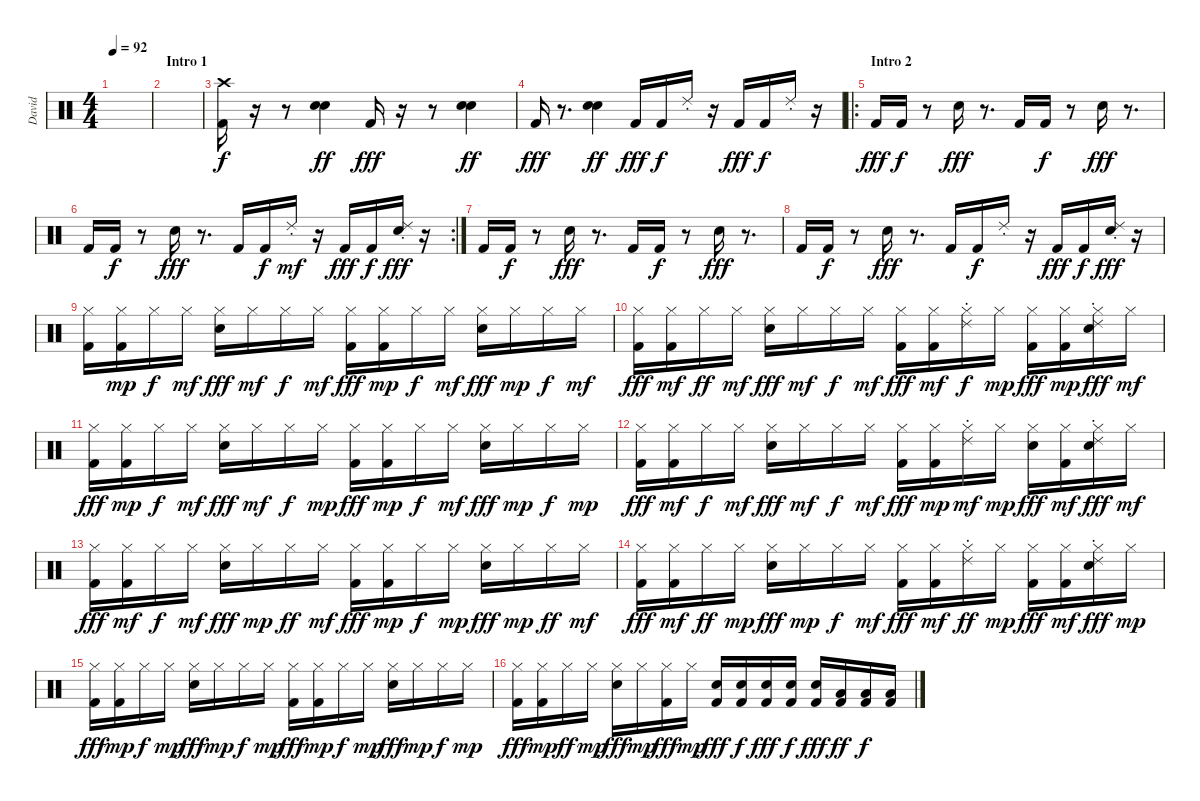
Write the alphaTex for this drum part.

\track ("David" "David") {instrument percussion}
\staff {score}
\articulation defaults
\ts (4 4)
\tempo 92
\clef neutral
\ks c
|
\section ("" "Intro 1")
|
("Crash high (hit)" "Kick (hit) 2").16 r.16 r.8 ("Electric Snare (hit)" "Electric Snare (hit)").4{dy ff} "Kick (hit) 2".16{dy fff} r.16 r.8 ("Electric Snare (hit)" "Electric Snare (hit)").4{dy ff} |
"Kick (hit) 2".16{dy fff} r.8{d} ("Electric Snare (hit)" "Electric Snare (hit)").4{dy ff} "Kick (hit) 2".16{dy fff} "Kick (hit) 2".16{dy f} "Ride (choke) 2".16 r.16 "Kick (hit) 2".16{dy fff} "Kick (hit) 2".16{dy f} "Ride (choke) 2".16 r.16 |
\ro
\section ("" "Intro 2")
"Kick (hit) 2".16{dy fff} "Kick (hit) 2".16{dy f} r.8 "Electric Snare (hit)".16{dy fff} r.8{d} "Kick (hit) 2".16 "Kick (hit) 2".16{dy f} r.8 "Electric Snare (hit)".16{dy fff} r.8{d} |
\rc 2 "Kick (hit) 2".16 "Kick (hit) 2".16{dy f}
r.8 "Electric Snare (hit)".16{dy fff} r.8{d} "Kick (hit) 2".16 "Kick (hit) 2".16{dy f} "Ride (choke) 2".16{dy mf} r.16 "Kick (hit) 2".16{dy fff} "Kick (hit) 2".16{dy f} ("Ride (choke) 2" "Electric Snare (hit)").16{dy fff} r.16 |
"Kick (hit) 2".16 "Kick (hit) 2".16{dy f} r.8 "Electric Snare (hit)".16{dy fff} r.8{d} "Kick (hit) 2".16 "Kick (hit) 2".16{dy f} r.8 "Electric Snare (hit)".16{dy fff} r.8{d} |
"Kick (hit) 2".16 "Kick (hit) 2".16{dy f} r.8 "Electric Snare (hit)".16{dy fff} r.8{d} "Kick (hit) 2".16 "Kick (hit) 2".16{dy f} "Ride (choke) 2".16 r.16 "Kick (hit) 2".16{dy fff} "Kick (hit) 2".16{dy f} ("Ride (choke) 2" "Electric Snare (hit)").16{dy fff} r.16 |
("Hi-Hat (closed)" "Kick (hit) 2").16 ("Hi-Hat (closed)" "Kick (hit) 2").16{dy mp} "Hi-Hat (closed)".16{dy f} "Hi-Hat (closed)".16{dy mf} ("Hi-Hat (closed)" "Electric Snare (hit)").16{dy fff} "Hi-Hat (closed)".16{dy mf} "Hi-Hat (closed)".16{dy f} "Hi-Hat (closed)".16{dy mf} ("Hi-Hat (closed)" "Kick (hit) 2").16{dy fff} ("Hi-Hat (closed)" "Kick (hit) 2").16{dy mp} "Hi-Hat (closed)".16{dy f} "Hi-Hat (closed)".16{dy mf} ("Hi-Hat (closed)" "Electric Snare (hit)").16{dy fff} "Hi-Hat (closed)".16{dy mp} "Hi-Hat (closed)".16{dy f} "Hi-Hat (closed)".16{dy mf} |
("Hi-Hat (closed)" "Kick (hit) 2").16{dy fff} ("Hi-Hat (closed)" "Kick (hit) 2").16{dy mf} "Hi-Hat (closed)".16{dy ff} "Hi-Hat (closed)".16{dy mf} ("Hi-Hat (closed)" "Electric Snare (hit)").16{dy fff} "Hi-Hat (closed)".16{dy mf} "Hi-Hat (closed)".16{dy f} "Hi-Hat (closed)".16{dy mf} ("Hi-Hat (closed)" "Kick (hit) 2").16{dy fff} ("Hi-Hat (closed)" "Kick (hit) 2").16{dy mf} ("Ride (choke) 2" "Hi-Hat (closed)").16{dy f} "Hi-Hat (closed)".16{dy mp} ("Hi-Hat (closed)" "Kick (hit) 2").16{dy fff} ("Hi-Hat (closed)" "Kick (hit) 2").16{dy mp} ("Ride (choke) 2" "Hi-Hat (closed)" "Electric Snare (hit)").16{dy fff} "Hi-Hat (closed)".16{dy mf} |
("Hi-Hat (closed)" "Kick (hit) 2").16{dy fff} ("Hi-Hat (closed)" "Kick (hit) 2").16{dy mp} "Hi-Hat (closed)".16{dy f} "Hi-Hat (closed)".16{dy mf} ("Hi-Hat (closed)" "Electric Snare (hit)").16{dy fff} "Hi-Hat (closed)".16{dy mf} "Hi-Hat (closed)".16{dy f} "Hi-Hat (closed)".16{dy mp} ("Hi-Hat (closed)" "Kick (hit) 2").16{dy fff} ("Hi-Hat (closed)" "Kick (hit) 2").16{dy mp} "Hi-Hat (closed)".16{dy f} "Hi-Hat (closed)".16{dy mf} ("Hi-Hat (closed)" "Electric Snare (hit)").16{dy fff} "Hi-Hat (closed)".16{dy mp} "Hi-Hat (closed)".16{dy f} "Hi-Hat (closed)".16{dy mp} |
("Hi-Hat (closed)" "Kick (hit) 2").16{dy fff} ("Hi-Hat (closed)" "Kick (hit) 2").16{dy mf} "Hi-Hat (closed)".16{dy f} "Hi-Hat (closed)".16{dy mf} ("Hi-Hat (closed)" "Electric Snare (hit)").16{dy fff} "Hi-Hat (closed)".16{dy mf} "Hi-Hat (closed)".16{dy f} "Hi-Hat (closed)".16{dy mf} ("Hi-Hat (closed)" "Kick (hit) 2").16{dy fff} ("Hi-Hat (closed)" "Kick (hit) 2").16{dy mp} ("Ride (choke) 2" "Hi-Hat (closed)").16{dy mf} "Hi-Hat (closed)".16{dy mp} ("Hi-Hat (closed)" "Electric Snare (hit)").16{dy fff} ("Hi-Hat (closed)" "Kick (hit) 2").16{dy mf} ("Ride (choke) 2" "Hi-Hat (closed)" "Electric Snare (hit)").16{dy fff} "Hi-Hat (closed)".16{dy mf} |
("Hi-Hat (closed)" "Kick (hit) 2").16{dy fff} ("Hi-Hat (closed)" "Kick (hit) 2").16{dy mf} "Hi-Hat (closed)".16{dy f} "Hi-Hat (closed)".16{dy mf} ("Hi-Hat (closed)" "Electric Snare (hit)").16{dy fff} "Hi-Hat (closed)".16{dy mp} "Hi-Hat (closed)".16{dy ff} "Hi-Hat (closed)".16{dy mf} ("Hi-Hat (closed)" "Kick (hit) 2").16{dy fff} ("Hi-Hat (closed)" "Kick (hit) 2").16{dy mp} "Hi-Hat (closed)".16{dy f} "Hi-Hat (closed)".16{dy mp} ("Hi-Hat (closed)" "Electric Snare (hit)").16{dy fff} "Hi-Hat (closed)".16{dy mp} "Hi-Hat (closed)".16{dy ff} "Hi-Hat (closed)".16{dy mf} |
("Hi-Hat (closed)" "Kick (hit) 2").16{dy fff} ("Hi-Hat (closed)" "Kick (hit) 2").16{dy mf} "Hi-Hat (closed)".16{dy ff} "Hi-Hat (closed)".16{dy mp} ("Hi-Hat (closed)" "Electric Snare (hit)").16{dy fff} "Hi-Hat (closed)".16{dy mp} "Hi-Hat (closed)".16{dy f} "Hi-Hat (closed)".16{dy mf} ("Hi-Hat (closed)" "Kick (hit) 2").16{dy fff} ("Hi-Hat (closed)" "Kick (hit) 2").16{dy mf} ("Ride (choke) 2" "Hi-Hat (closed)").16{dy ff} "Hi-Hat (closed)".16{dy mp} ("Hi-Hat (closed)" "Kick (hit) 2").16{dy fff} ("Hi-Hat (closed)" "Kick (hit) 2").16{dy mf} ("Ride (choke) 2" "Hi-Hat (closed)" "Electric Snare (hit)").16{dy fff} "Hi-Hat (closed)".16{dy mp} |
("Hi-Hat (closed)" "Kick (hit) 2").16{dy fff} ("Hi-Hat (closed)" "Kick (hit) 2").16{dy mp} "Hi-Hat (closed)".16{dy f} "Hi-Hat (closed)".16{dy mp} ("Hi-Hat (closed)" "Electric Snare (hit)").16{dy fff} "Hi-Hat (closed)".16{dy mp} "Hi-Hat (closed)".16{dy f} "Hi-Hat (closed)".16{dy mp} ("Hi-Hat (closed)" "Kick (hit) 2").16{dy fff} ("Hi-Hat (closed)" "Kick (hit) 2").16{dy mp} "Hi-Hat (closed)".16{dy f} "Hi-Hat (closed)".16{dy mp} ("Hi-Hat (closed)" "Electric Snare (hit)").16{dy fff} "Hi-Hat (closed)".16{dy mp} "Hi-Hat (closed)".16{dy f} "Hi-Hat (closed)".16{dy mp} |
("Hi-Hat (closed)" "Kick (hit) 2").16{dy fff} ("Hi-Hat (closed)" "Kick (hit) 2").16{dy mp} "Hi-Hat (closed)".16{dy ff} "Hi-Hat (closed)".16{dy mp} ("Hi-Hat (closed)" "Electric Snare (hit)").16{dy fff} "Hi-Hat (closed)".16{dy mp} ("Hi-Hat (closed)" "Kick (hit) 2").16{dy fff} "Hi-Hat (closed)".16{dy mp} ("Electric Snare (hit)" "Kick (hit) 2").16{dy fff} ("Electric Snare (hit)" "Kick (hit) 2").16{dy f} ("Electric Snare (hit)" "Kick (hit) 2").16{dy fff} ("Electric Snare (hit)" "Kick (hit) 2").16{dy f} ("Electric Snare (hit)" "Kick (hit) 2").16{dy fff} ("Low Tom (hit)" "Kick (hit) 2").16{dy ff} ("Low Tom (hit)" "Kick (hit) 2").16{dy f} ("Low Floor Tom (hit)" "Kick (hit) 2").16
